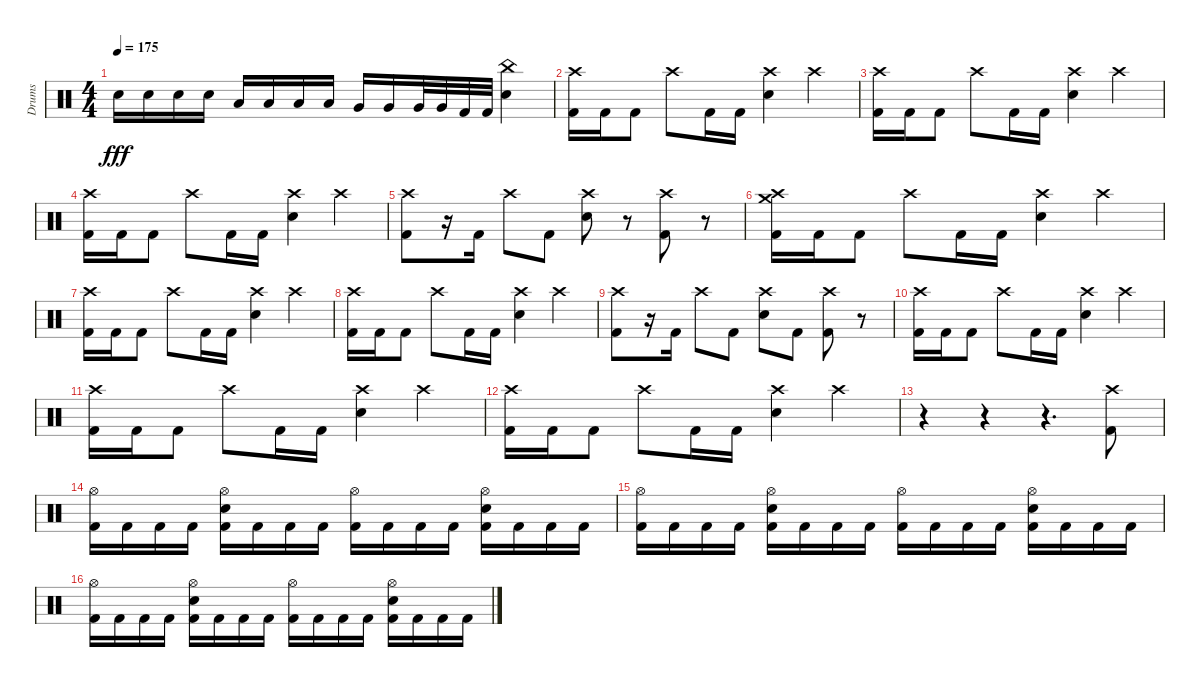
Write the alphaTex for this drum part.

\track ("Drums" "Drums") {instrument percussion}
\staff {score}
\articulation defaults
\ts (4 4)
\tempo 175
\clef neutral
\ks c "Snare (hit) 2".16{dy fff} "Snare (hit) 2".16 "Snare (hit) 2".16 "Snare (hit) 2".16 "Low Tom (hit)".16 "Low Tom (hit)".16 "Low Tom (hit)".16 "Low Tom (hit)".16 "Very Low Tom (hit)".16 "Very Low Tom (hit)".16 "Very Low Tom (hit)".32 "Very Low Tom (hit)".32 "Kick (hit) 2".32 "Kick (hit) 2".32
("China (hit)" "Snare (hit) 2").4 |
("Crash high (hit)" "Kick (hit) 2").16 "Kick (hit) 2".16 "Kick (hit) 2".8 "Crash high (hit)".8 "Kick (hit) 2".16 "Kick (hit) 2".16 ("Crash high (hit)" "Snare (hit) 2").4 "Crash high (hit)".4 |
("Crash high (hit)" "Kick (hit) 2").16 "Kick (hit) 2".16 "Kick (hit) 2".8 "Crash high (hit)".8 "Kick (hit) 2".16 "Kick (hit) 2".16 ("Crash high (hit)" "Snare (hit) 2").4 "Crash high (hit)".4 |
("Crash high (hit)" "Kick (hit) 2").16 "Kick (hit) 2".16 "Kick (hit) 2".8 "Crash high (hit)".8 "Kick (hit) 2".16 "Kick (hit) 2".16 ("Crash high (hit)" "Snare (hit) 2").4 "Crash high (hit)".4 |
("Crash high (hit)" "Kick (hit) 2").8 r.16 "Kick (hit) 2".16 "Crash high (hit)".8 "Kick (hit) 2".8 ("Crash high (hit)" "Snare (hit) 2").8 r.8 ("Crash high (hit)" "Kick (hit) 2").8 r.8 |
("Crash high (hit)" "Crash medium (hit)" "Kick (hit) 2").16 "Kick (hit) 2".16 "Kick (hit) 2".8 "Crash high (hit)".8 "Kick (hit) 2".16 "Kick (hit) 2".16 ("Crash high (hit)" "Snare (hit) 2").4 "Crash high (hit)".4 |
("Crash high (hit)" "Kick (hit) 2").16 "Kick (hit) 2".16 "Kick (hit) 2".8 "Crash high (hit)".8 "Kick (hit) 2".16 "Kick (hit) 2".16 ("Crash high (hit)" "Snare (hit) 2").4 "Crash high (hit)".4 |
("Crash high (hit)" "Kick (hit) 2").16 "Kick (hit) 2".16 "Kick (hit) 2".8 "Crash high (hit)".8 "Kick (hit) 2".16 "Kick (hit) 2".16 ("Crash high (hit)" "Snare (hit) 2").4 "Crash high (hit)".4 |
("Crash high (hit)" "Kick (hit) 2").8 r.16 "Kick (hit) 2".16 "Crash high (hit)".8 "Kick (hit) 2".8 ("Crash high (hit)" "Snare (hit) 2").8 "Kick (hit) 2".8 ("Crash high (hit)" "Kick (hit) 2").8 r.8 |
("Crash high (hit)" "Kick (hit) 2").16 "Kick (hit) 2".16 "Kick (hit) 2".8 "Crash high (hit)".8 "Kick (hit) 2".16 "Kick (hit) 2".16 ("Crash high (hit)" "Snare (hit) 2").4 "Crash high (hit)".4 |
("Crash high (hit)" "Kick (hit) 2").16 "Kick (hit) 2".16 "Kick (hit) 2".8 "Crash high (hit)".8 "Kick (hit) 2".16 "Kick (hit) 2".16 ("Crash high (hit)" "Snare (hit) 2").4 "Crash high (hit)".4 |
("Crash high (hit)" "Kick (hit) 2").16 "Kick (hit) 2".16 "Kick (hit) 2".8 "Crash high (hit)".8 "Kick (hit) 2".16 "Kick (hit) 2".16 ("Crash high (hit)" "Snare (hit) 2").4 "Crash high (hit)".4 |
r.4 r.4 r.4{d} ("Crash high (hit)" "Kick (hit) 2").8 |
("Hi-Hat (open)" "Kick (hit) 2").16 "Kick (hit) 2".16 "Kick (hit) 2".16 "Kick (hit) 2".16 ("Hi-Hat (open)" "Snare (hit) 2" "Kick (hit) 2").16 "Kick (hit) 2".16 "Kick (hit) 2".16 "Kick (hit) 2".16 ("Hi-Hat (open)" "Kick (hit) 2").16 "Kick (hit) 2".16 "Kick (hit) 2".16 "Kick (hit) 2".16 ("Hi-Hat (open)" "Snare (hit) 2" "Kick (hit) 2").16 "Kick (hit) 2".16 "Kick (hit) 2".16 "Kick (hit) 2".16 |
("Hi-Hat (open)" "Kick (hit) 2").16 "Kick (hit) 2".16 "Kick (hit) 2".16 "Kick (hit) 2".16 ("Hi-Hat (open)" "Snare (hit) 2" "Kick (hit) 2").16 "Kick (hit) 2".16 "Kick (hit) 2".16 "Kick (hit) 2".16 ("Hi-Hat (open)" "Kick (hit) 2").16 "Kick (hit) 2".16 "Kick (hit) 2".16 "Kick (hit) 2".16 ("Hi-Hat (open)" "Snare (hit) 2" "Kick (hit) 2").16 "Kick (hit) 2".16 "Kick (hit) 2".16 "Kick (hit) 2".16 |
("Hi-Hat (open)" "Kick (hit) 2").16 "Kick (hit) 2".16 "Kick (hit) 2".16 "Kick (hit) 2".16 ("Hi-Hat (open)" "Snare (hit) 2" "Kick (hit) 2").16 "Kick (hit) 2".16 "Kick (hit) 2".16 "Kick (hit) 2".16 ("Hi-Hat (open)" "Kick (hit) 2").16 "Kick (hit) 2".16 "Kick (hit) 2".16 "Kick (hit) 2".16 ("Hi-Hat (open)" "Snare (hit) 2" "Kick (hit) 2").16 "Kick (hit) 2".16 "Kick (hit) 2".16 "Kick (hit) 2".16
